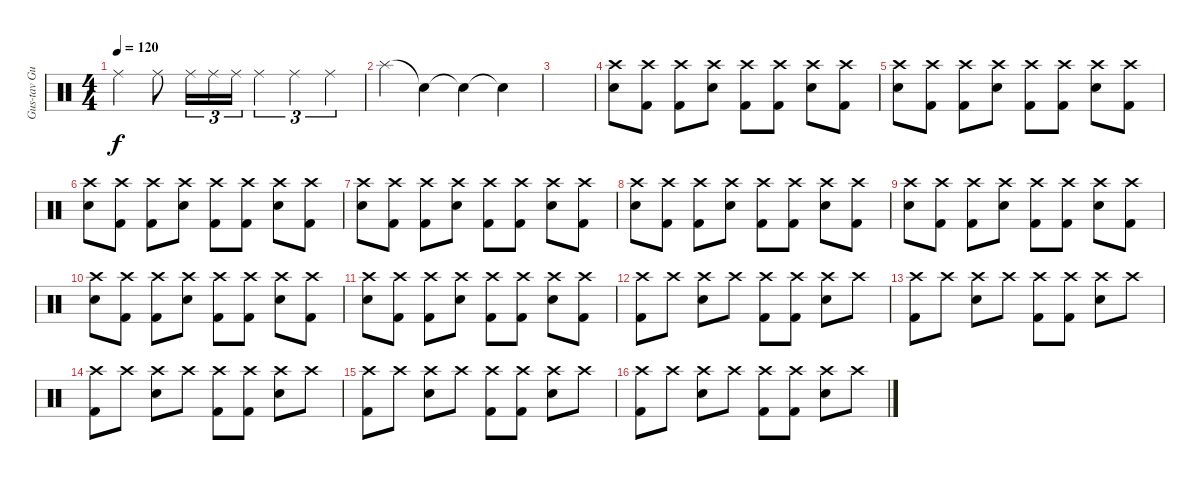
\track ("Gus-tav Gus-Gus-tav" "Gus-tav Gu") {instrument percussion}
\staff {score}
\articulation defaults
\ts (4 4)
\tempo 120
\clef neutral
\ks c "Ride (middle)".4{dy f} "Ride (middle)".8 "Ride (middle)".16{tu (3 2)} "Ride (middle)".16{tu (3 2)} "Ride (middle)".16{tu (3 2)} "Ride (middle)".4{tu (3 2)} "Ride (middle)".4{tu (3 2)} "Ride (middle)".4{tu (3 2)}
|
"Splash (hit)".4 "Snare (hit)"{t}.4 "Snare (hit)"{t}.4 "Snare (hit)"{t}.4 |
|
("Snare (hit) 2" "Crash high (hit)").8 ("Kick (hit) 2" "Crash high (hit)").8 ("Crash high (hit)" "Kick (hit) 2").8 ("Snare (hit) 2" "Crash high (hit)").8 ("Kick (hit) 2" "Crash high (hit)").8 ("Kick (hit) 2" "Crash high (hit)").8 ("Snare (hit) 2" "Crash high (hit)").8 ("Crash high (hit)" "Kick (hit) 2").8 |
("Snare (hit) 2" "Crash high (hit)").8 ("Kick (hit) 2" "Crash high (hit)").8 ("Crash high (hit)" "Kick (hit) 2").8 ("Snare (hit) 2" "Crash high (hit)").8 ("Kick (hit) 2" "Crash high (hit)").8 ("Kick (hit) 2" "Crash high (hit)").8 ("Snare (hit) 2" "Crash high (hit)").8 ("Crash high (hit)" "Kick (hit) 2").8 |
("Snare (hit) 2" "Crash high (hit)").8 ("Kick (hit) 2" "Crash high (hit)").8 ("Crash high (hit)" "Kick (hit) 2").8 ("Snare (hit) 2" "Crash high (hit)").8 ("Kick (hit) 2" "Crash high (hit)").8 ("Kick (hit) 2" "Crash high (hit)").8 ("Snare (hit) 2" "Crash high (hit)").8 ("Crash high (hit)" "Kick (hit) 2").8 |
("Snare (hit) 2" "Crash high (hit)").8 ("Kick (hit) 2" "Crash high (hit)").8 ("Crash high (hit)" "Kick (hit) 2").8 ("Snare (hit) 2" "Crash high (hit)").8 ("Kick (hit) 2" "Crash high (hit)").8 ("Kick (hit) 2" "Crash high (hit)").8 ("Snare (hit) 2" "Crash high (hit)").8 ("Crash high (hit)" "Kick (hit) 2").8 |
("Snare (hit) 2" "Crash high (hit)").8 ("Kick (hit) 2" "Crash high (hit)").8 ("Crash high (hit)" "Kick (hit) 2").8 ("Snare (hit) 2" "Crash high (hit)").8 ("Kick (hit) 2" "Crash high (hit)").8 ("Kick (hit) 2" "Crash high (hit)").8 ("Snare (hit) 2" "Crash high (hit)").8 ("Crash high (hit)" "Kick (hit) 2").8 |
("Snare (hit) 2" "Crash high (hit)").8 ("Kick (hit) 2" "Crash high (hit)").8 ("Crash high (hit)" "Kick (hit) 2").8 ("Snare (hit) 2" "Crash high (hit)").8 ("Kick (hit) 2" "Crash high (hit)").8 ("Kick (hit) 2" "Crash high (hit)").8 ("Snare (hit) 2" "Crash high (hit)").8 ("Crash high (hit)" "Kick (hit) 2").8 |
("Snare (hit) 2" "Crash high (hit)").8 ("Kick (hit) 2" "Crash high (hit)").8 ("Crash high (hit)" "Kick (hit) 2").8 ("Snare (hit) 2" "Crash high (hit)").8 ("Kick (hit) 2" "Crash high (hit)").8 ("Kick (hit) 2" "Crash high (hit)").8 ("Snare (hit) 2" "Crash high (hit)").8 ("Crash high (hit)" "Kick (hit) 2").8 |
("Snare (hit) 2" "Crash high (hit)").8 ("Kick (hit) 2" "Crash high (hit)").8 ("Crash high (hit)" "Kick (hit) 2").8 ("Snare (hit) 2" "Crash high (hit)").8 ("Kick (hit) 2" "Crash high (hit)").8 ("Kick (hit) 2" "Crash high (hit)").8 ("Snare (hit) 2" "Crash high (hit)").8 ("Crash high (hit)" "Kick (hit) 2").8 |
("Crash high (hit)" "Kick (hit) 2").8 "Crash high (hit)".8 ("Snare (hit) 2" "Crash high (hit)").8 "Crash high (hit)".8 ("Kick (hit) 2" "Crash high (hit)").8 ("Crash high (hit)" "Kick (hit) 2").8 ("Snare (hit) 2" "Crash high (hit)").8 "Crash high (hit)".8 |
("Crash high (hit)" "Kick (hit) 2").8 "Crash high (hit)".8 ("Snare (hit) 2" "Crash high (hit)").8 "Crash high (hit)".8 ("Kick (hit) 2" "Crash high (hit)").8 ("Crash high (hit)" "Kick (hit) 2").8 ("Snare (hit) 2" "Crash high (hit)").8 "Crash high (hit)".8 |
("Crash high (hit)" "Kick (hit) 2").8 "Crash high (hit)".8 ("Snare (hit) 2" "Crash high (hit)").8 "Crash high (hit)".8 ("Kick (hit) 2" "Crash high (hit)").8 ("Crash high (hit)" "Kick (hit) 2").8 ("Snare (hit) 2" "Crash high (hit)").8 "Crash high (hit)".8 |
("Crash high (hit)" "Kick (hit) 2").8 "Crash high (hit)".8 ("Snare (hit) 2" "Crash high (hit)").8 "Crash high (hit)".8 ("Kick (hit) 2" "Crash high (hit)").8 ("Crash high (hit)" "Kick (hit) 2").8 ("Snare (hit) 2" "Crash high (hit)").8 "Crash high (hit)".8 |
("Crash high (hit)" "Kick (hit) 2").8 "Crash high (hit)".8 ("Snare (hit) 2" "Crash high (hit)").8 "Crash high (hit)".8 ("Kick (hit) 2" "Crash high (hit)").8 ("Crash high (hit)" "Kick (hit) 2").8 ("Snare (hit) 2" "Crash high (hit)").8 "Crash high (hit)".8
